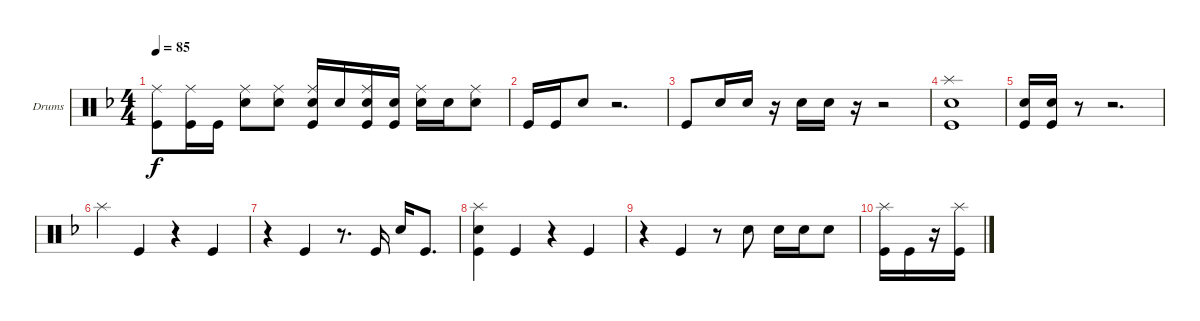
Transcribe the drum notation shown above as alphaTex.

\bracketExtendMode groupsimilarinstruments
\firstSystemTrackNameOrientation horizontal
\otherSystemsTrackNameOrientation horizontal
\track ("Drumkit" "Drums") {instrument percussion}
\staff {score}
\articulation defaults
\ts (4 4)
\tempo 85
\clef neutral
\ks dminor
("Kick (hit)" "Ride (middle)").8{dy f} ("Kick (hit)" "Ride (middle)").16 "Kick (hit)".16 ("Snare (hit) 2" "Ride (middle)").8 ("Ride (middle)" "Snare (hit) 2").8 ("Kick (hit)" "Ride (middle)" "Snare (hit) 2").16 "Snare (hit) 2".16 ("Kick (hit)" "Ride (middle)" "Snare (hit) 2").16 ("Kick (hit)" "Snare (hit) 2").16 ("Snare (hit) 2" "Ride (middle)").16 "Snare (hit) 2".16 ("Ride (middle)" "Snare (hit) 2").8 |
"Kick (hit)".16 "Kick (hit)".16 "Snare (hit) 2".8 r.2{d} |
"Kick (hit)".8 "Snare (hit) 2".16 "Snare (hit) 2".16 r.16 "Snare (hit) 2".16 "Snare (hit) 2".16 r.16 r.2 |
("Kick (hit)" "Snare (hit) 2" "Splash (hit)").1 |
("Kick (hit)" "Snare (hit) 2").16 ("Kick (hit)" "Snare (hit) 2").16 r.8 r.2{d} |
"Splash (hit)".4 "Kick (hit)".4 r.4 "Kick (hit)".4 |
r.4 "Kick (hit)".4 r.8{d} "Kick (hit)".16 "Snare (hit) 2".16 "Kick (hit)".8{d} |
("Kick (hit)" "Snare (hit) 2" "Splash (hit)").4 "Kick (hit)".4 r.4 "Kick (hit)".4 |
r.4 "Kick (hit)".4 r.8 "Snare (hit) 2".8 "Snare (hit) 2".16 "Snare (hit) 2".16 "Snare (hit) 2".8 |
("Kick (hit)" "Splash (hit)").16 "Kick (hit)".16 r.16 ("Kick (hit)" "Splash (hit)").16
